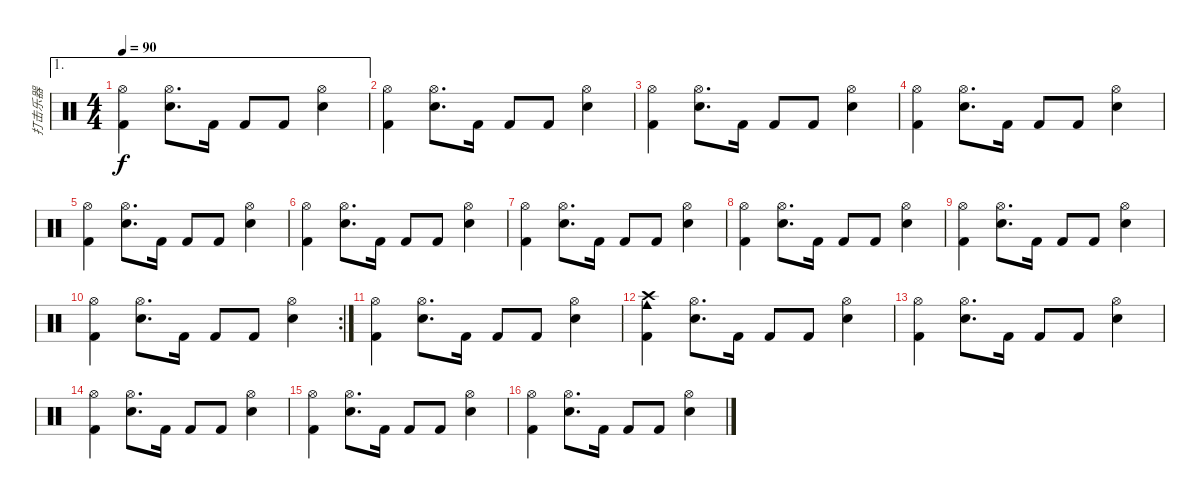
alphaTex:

\track ("打击乐器" "打击乐器") {instrument percussion}
\staff {score}
\articulation defaults
\ae 1
\ts (4 4)
\tempo 90
\clef neutral
\ks c
("Hi-Hat (open)" "Kick (hit) 2").4{dy f} ("Electric Snare (hit)" "Hi-Hat (open)").8{d} "Kick (hit) 2".16 "Kick (hit) 2".8 "Kick (hit) 2".8 ("Electric Snare (hit)" "Hi-Hat (open)").4 |
("Hi-Hat (open)" "Kick (hit) 2").4 ("Electric Snare (hit)" "Hi-Hat (open)").8{d} "Kick (hit) 2".16 "Kick (hit) 2".8 "Kick (hit) 2".8 ("Electric Snare (hit)" "Hi-Hat (open)").4 |
("Hi-Hat (open)" "Kick (hit) 2").4 ("Electric Snare (hit)" "Hi-Hat (open)").8{d} "Kick (hit) 2".16 "Kick (hit) 2".8 "Kick (hit) 2".8 ("Electric Snare (hit)" "Hi-Hat (open)").4 |
("Hi-Hat (open)" "Kick (hit) 2").4 ("Electric Snare (hit)" "Hi-Hat (open)").8{d} "Kick (hit) 2".16 "Kick (hit) 2".8 "Kick (hit) 2".8 ("Electric Snare (hit)" "Hi-Hat (open)").4 |
("Hi-Hat (open)" "Kick (hit) 2").4 ("Electric Snare (hit)" "Hi-Hat (open)").8{d} "Kick (hit) 2".16 "Kick (hit) 2".8 "Kick (hit) 2".8 ("Electric Snare (hit)" "Hi-Hat (open)").4 |
("Hi-Hat (open)" "Kick (hit) 2").4 ("Electric Snare (hit)" "Hi-Hat (open)").8{d} "Kick (hit) 2".16 "Kick (hit) 2".8 "Kick (hit) 2".8 ("Electric Snare (hit)" "Hi-Hat (open)").4 |
("Hi-Hat (open)" "Kick (hit) 2").4 ("Electric Snare (hit)" "Hi-Hat (open)").8{d} "Kick (hit) 2".16 "Kick (hit) 2".8 "Kick (hit) 2".8 ("Electric Snare (hit)" "Hi-Hat (open)").4 |
("Hi-Hat (open)" "Kick (hit) 2").4 ("Electric Snare (hit)" "Hi-Hat (open)").8{d} "Kick (hit) 2".16 "Kick (hit) 2".8 "Kick (hit) 2".8 ("Electric Snare (hit)" "Hi-Hat (open)").4 |
("Hi-Hat (open)" "Kick (hit) 2").4 ("Electric Snare (hit)" "Hi-Hat (open)").8{d} "Kick (hit) 2".16 "Kick (hit) 2".8 "Kick (hit) 2".8 ("Electric Snare (hit)" "Hi-Hat (open)").4 |
\rc 2
("Hi-Hat (open)" "Kick (hit) 2").4 ("Electric Snare (hit)" "Hi-Hat (open)").8{d} "Kick (hit) 2".16 "Kick (hit) 2".8 "Kick (hit) 2".8 ("Electric Snare (hit)" "Hi-Hat (open)").4 |
("Hi-Hat (open)" "Kick (hit) 2").4 ("Electric Snare (hit)" "Hi-Hat (open)").8{d} "Kick (hit) 2".16 "Kick (hit) 2".8 "Kick (hit) 2".8 ("Electric Snare (hit)" "Hi-Hat (open)").4 |
("Crash high (hit)" "Cowbell medium (hit)" "Kick (hit) 2").4 ("Electric Snare (hit)" "Hi-Hat (open)").8{d} "Kick (hit) 2".16 "Kick (hit) 2".8 "Kick (hit) 2".8 ("Electric Snare (hit)" "Hi-Hat (open)").4 |
("Hi-Hat (open)" "Kick (hit) 2").4 ("Electric Snare (hit)" "Hi-Hat (open)").8{d} "Kick (hit) 2".16 "Kick (hit) 2".8 "Kick (hit) 2".8 ("Electric Snare (hit)" "Hi-Hat (open)").4 |
("Hi-Hat (open)" "Kick (hit) 2").4 ("Electric Snare (hit)" "Hi-Hat (open)").8{d} "Kick (hit) 2".16 "Kick (hit) 2".8 "Kick (hit) 2".8 ("Electric Snare (hit)" "Hi-Hat (open)").4 |
("Hi-Hat (open)" "Kick (hit) 2").4 ("Electric Snare (hit)" "Hi-Hat (open)").8{d} "Kick (hit) 2".16 "Kick (hit) 2".8 "Kick (hit) 2".8 ("Electric Snare (hit)" "Hi-Hat (open)").4 |
("Hi-Hat (open)" "Kick (hit) 2").4 ("Electric Snare (hit)" "Hi-Hat (open)").8{d} "Kick (hit) 2".16 "Kick (hit) 2".8 "Kick (hit) 2".8 ("Electric Snare (hit)" "Hi-Hat (open)").4
